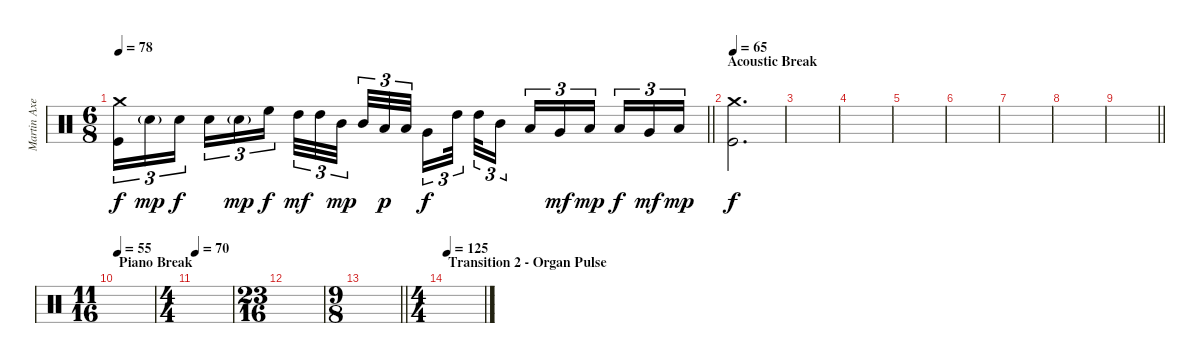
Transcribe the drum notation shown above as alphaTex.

\track ("Martin Axenrot" "Martin Axe") {instrument percussion}
\staff {score}
\articulation defaults
\ts (6 8)
\tempo 78
\clef neutral
\barLineRight lightlight
\ks c
("Crash medium (hit)" "Kick (hit)").16{tu (3 2) dy f} "Snare (hit) 2"{g}.16{tu (3 2) dy mp} "Snare (hit) 2".16{tu (3 2) dy f beam splitsecondary} "Snare (hit) 2".16{tu (3 2)} "Snare (hit) 2"{g}.16{tu (3 2) dy mp} "High Floor Tom (hit)".16{tu (3 2) dy f beam splitsecondary} "High Tom (hit)".32{tu (3 2) dy mf} "High Tom (hit)".32{tu (3 2)} "Mid Tom (hit)".32{tu (3 2) dy mp beam splitsecondary} "Mid Tom (hit)".32{tu (3 2)} "Low Tom (hit)".32{tu (3 2) dy p} "Low Tom (hit)".32{tu (3 2)} "Very Low Tom (hit)".16{tu (3 2) dy f} "High Tom (hit)".32{tu (3 2) beam splitsecondary} "High Tom (hit)".32{tu (3 2)} "Mid Tom (hit)".16{tu (3 2) beam splitsecondary} "Low Tom (hit)".16{tu (3 2)} "Very Low Tom (hit)".16{tu (3 2) dy mf} "Low Floor Tom (hit)".16{tu (3 2) dy mp beam splitsecondary} "Low Tom (hit)".16{tu (3 2) dy f} "Very Low Tom (hit)".16{tu (3 2) dy mf} "Low Floor Tom (hit)".16{tu (3 2) dy mp} |
\section ("" "Acoustic Break")
\tempo 65
("Crash medium (hit)" "Kick (hit)").2{d dy f} |
|
|
|
|
|
|
\barLineRight lightlight
|
\ts (11 16)
\section ("" "Piano Break")
\tempo 55
|
\ts (4 4)
\tempo 70
|
\ts (23 16)
|
\ts (9 8)
\barLineRight lightlight
|
\ts (4 4)
\section ("" "Transition 2 - Organ Pulse")
\tempo 125
